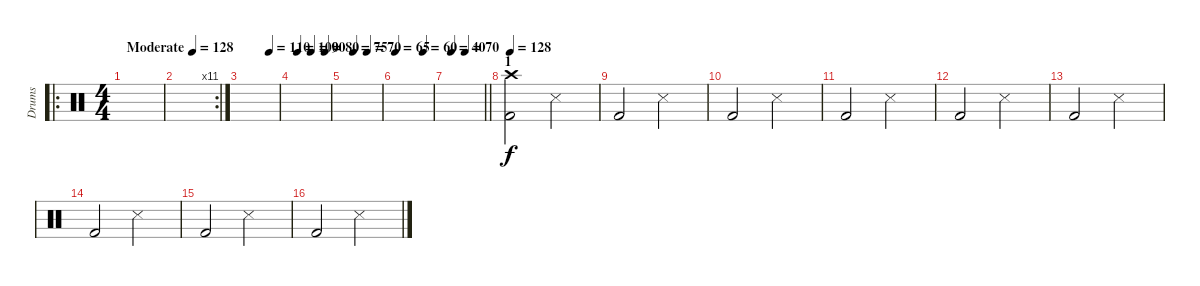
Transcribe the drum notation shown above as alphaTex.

\track ("Drums" "Drums") {instrument percussion}
\staff {score}
\articulation defaults
\ro
\ts (4 4)
\tempo (128 "Moderate")
\clef neutral
\ks c
|
\rc 11
|
\tempo (110 0.75)
|
\tempo (100 0.125)
\tempo (90 0.5)
\tempo (80 0.875)
|
\tempo (75 0.25)
\tempo (70 0.625)
|
\tempo 65
\tempo (60 0.75)
|
\tempo (40 0.125)
\tempo (70 0.5)
\barLineRight lightlight
|
\section ("" "1")
\tempo 128
("Crash high (hit)" "Kick (hit) 2").2 "Snare (side stick) 3".2 |
"Kick (hit) 2".2 "Snare (side stick) 3".2 |
"Kick (hit) 2".2 "Snare (side stick) 3".2 |
"Kick (hit) 2".2 "Snare (side stick) 3".2 |
"Kick (hit) 2".2 "Snare (side stick) 3".2 |
"Kick (hit) 2".2 "Snare (side stick) 3".2 |
"Kick (hit) 2".2 "Snare (side stick) 3".2 |
"Kick (hit) 2".2 "Snare (side stick) 3".2 |
"Kick (hit) 2".2 "Snare (side stick) 3".2
